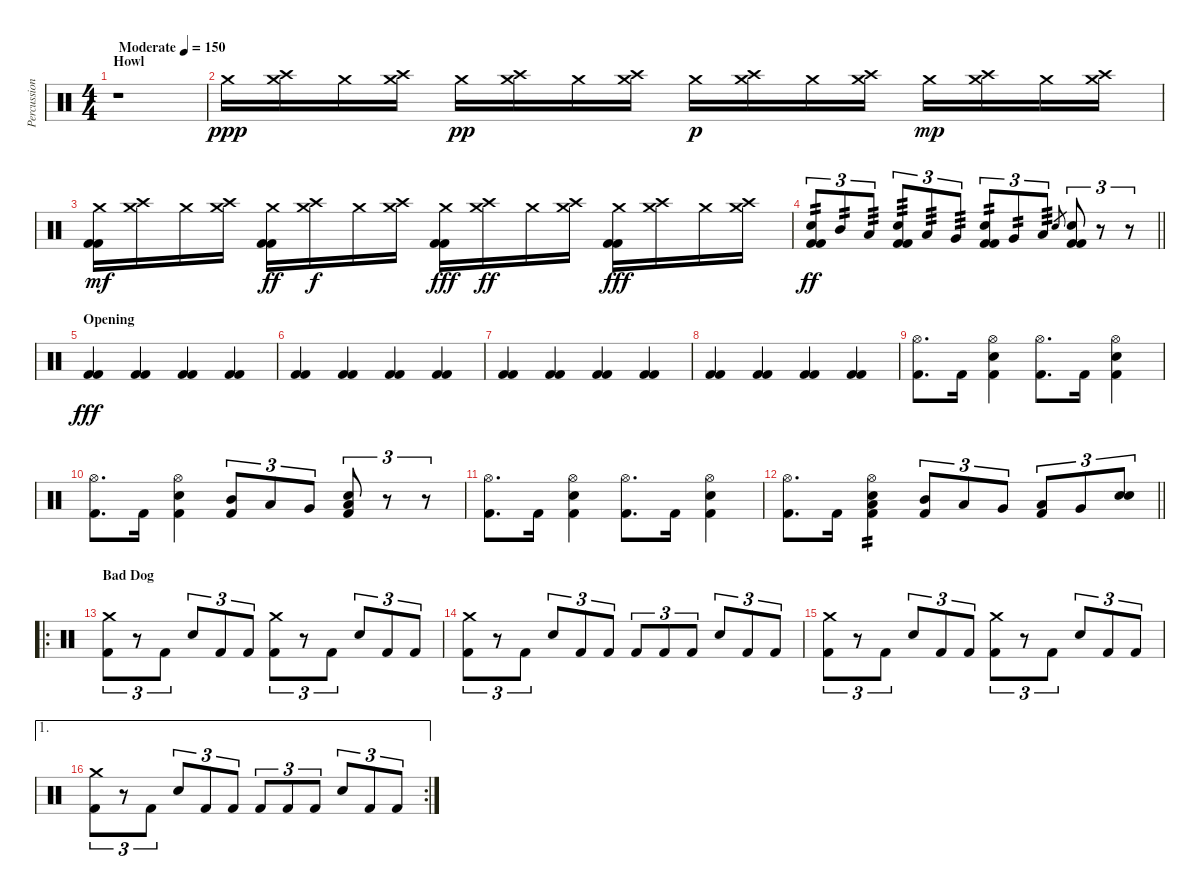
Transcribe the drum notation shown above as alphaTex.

\track ("Percussion" "Percussion") {instrument percussion}
\staff {score}
\articulation defaults
\ts (4 4)
\section ("" "Howl")
\tempo (150 "Moderate")
\clef neutral
\ks c
r.1{dy ppp} |
"Crash medium (hit)".16 ("Crash medium (hit)" "Crash high (hit)").16 "Crash medium (hit)".16 ("Crash medium (hit)" "Crash high (hit)").16 "Crash medium (hit)".16{dy pp} ("Crash medium (hit)" "Crash high (hit)").16 "Crash medium (hit)".16 ("Crash medium (hit)" "Crash high (hit)").16 "Crash medium (hit)".16{dy p} ("Crash medium (hit)" "Crash high (hit)").16 "Crash medium (hit)".16 ("Crash medium (hit)" "Crash high (hit)").16 "Crash medium (hit)".16{dy mp} ("Crash medium (hit)" "Crash high (hit)").16 "Crash medium (hit)".16 ("Crash medium (hit)" "Crash high (hit)").16 |
("Crash medium (hit)" "Kick (hit) 2" "Kick (hit) 2").16{dy mf} ("Crash medium (hit)" "Crash high (hit)").16 "Crash medium (hit)".16 ("Crash medium (hit)" "Crash high (hit)").16 ("Crash medium (hit)" "Kick (hit) 2" "Kick (hit) 2").16{dy ff} ("Crash medium (hit)" "Crash high (hit)").16{dy f} "Crash medium (hit)".16 ("Crash medium (hit)" "Crash high (hit)").16 ("Crash medium (hit)" "Kick (hit) 2" "Kick (hit) 2").16{dy fff} ("Crash medium (hit)" "Crash high (hit)").16{dy ff} "Crash medium (hit)".16 ("Crash medium (hit)" "Crash high (hit)").16 ("Crash medium (hit)" "Kick (hit) 2" "Kick (hit) 2").16{dy fff} ("Crash medium (hit)" "Crash high (hit)").16 "Crash medium (hit)".16 ("Crash medium (hit)" "Crash high (hit)").16 |
\barLineRight lightlight
("Snare (hit) 2" "Kick (hit) 2" "Kick (hit) 2").8{tu (3 2) tp 2 dy ff} "Mid Tom (hit)".8{tu (3 2) tp 2} "Low Tom (hit)".8{tu (3 2) tp 3} ("Snare (hit) 2" "Kick (hit) 2" "Kick (hit) 2").8{tu (3 2) tp 3} "Low Tom (hit)".8{tu (3 2) tp 3} "Very Low Tom (hit)".8{tu (3 2) tp 3} ("Snare (hit) 2" "Kick (hit) 2" "Kick (hit) 2").8{tu (3 2) tp 2} "Very Low Tom (hit)".8{tu (3 2) tp 2} "Low Floor Tom (hit)".8{tu (3 2) tp 3} "Electric Snare (hit)".8{gr} ("Snare (hit) 2" "Kick (hit) 2" "Kick (hit) 2").8{tu (3 2)} r.8{tu (3 2)} r.8{tu (3 2)} |
\section ("" "Opening")
("Kick (hit) 2" "Kick (hit) 2").4{dy fff} ("Kick (hit) 2" "Kick (hit) 2").4 ("Kick (hit) 2" "Kick (hit) 2").4 ("Kick (hit) 2" "Kick (hit) 2").4 |
("Kick (hit) 2" "Kick (hit) 2").4 ("Kick (hit) 2" "Kick (hit) 2").4 ("Kick (hit) 2" "Kick (hit) 2").4 ("Kick (hit) 2" "Kick (hit) 2").4 |
("Kick (hit) 2" "Kick (hit) 2").4 ("Kick (hit) 2" "Kick (hit) 2").4 ("Kick (hit) 2" "Kick (hit) 2").4 ("Kick (hit) 2" "Kick (hit) 2").4 |
("Kick (hit) 2" "Kick (hit) 2").4 ("Kick (hit) 2" "Kick (hit) 2").4 ("Kick (hit) 2" "Kick (hit) 2").4 ("Kick (hit) 2" "Kick (hit) 2").4 |
("Hi-Hat (open)" "Kick (hit) 2").8{d} "Kick (hit) 2".16 ("Hi-Hat (open)" "Snare (hit) 2" "Kick (hit) 2").4 ("Hi-Hat (open)" "Kick (hit) 2").8{d} "Kick (hit) 2".16 ("Hi-Hat (open)" "Snare (hit) 2" "Kick (hit) 2").4 |
("Hi-Hat (open)" "Kick (hit) 2").8{d} "Kick (hit) 2".16 ("Hi-Hat (open)" "Snare (hit) 2" "Kick (hit) 2").4 ("Mid Tom (hit)" "Kick (hit) 2").8{tu (3 2)} "Low Tom (hit)".8{tu (3 2)} "Very Low Tom (hit)".8{tu (3 2)} ("Snare (hit) 2" "Low Floor Tom (hit)" "Kick (hit) 2").8{tu (3 2)} r.8{tu (3 2)} r.8{tu (3 2)} |
("Hi-Hat (open)" "Kick (hit) 2").8{d} "Kick (hit) 2".16 ("Hi-Hat (open)" "Snare (hit) 2" "Kick (hit) 2").4 ("Hi-Hat (open)" "Kick (hit) 2").8{d} "Kick (hit) 2".16 ("Hi-Hat (open)" "Snare (hit) 2" "Kick (hit) 2").4 |
\barLineRight lightlight
("Hi-Hat (open)" "Kick (hit) 2").8{d} "Kick (hit) 2".16 ("Hi-Hat (open)" "Snare (hit) 2" "Low Tom (hit)" "Kick (hit) 2").4{tp 2} ("Mid Tom (hit)" "Kick (hit) 2").8{tu (3 2)} "Low Tom (hit)".8{tu (3 2)} "Very Low Tom (hit)".8{tu (3 2)} ("Low Tom (hit)" "Kick (hit) 2").8{tu (3 2)} "Very Low Tom (hit)".8{tu (3 2)} ("Snare (hit) 2" "Electric Snare (hit)").8{tu (3 2)} |
\ro
\section ("" "Bad Dog")
("Crash medium (hit)" "Kick (hit) 2").8{tu (3 2)} r.8{tu (3 2)} "Kick (hit) 2".8{tu (3 2)} "Snare (hit) 2".8{tu (3 2)} "Kick (hit) 2".8{tu (3 2)} "Kick (hit) 2".8{tu (3 2)} ("Crash medium (hit)" "Kick (hit) 2").8{tu (3 2)} r.8{tu (3 2)} "Kick (hit) 2".8{tu (3 2)} "Snare (hit) 2".8{tu (3 2)} "Kick (hit) 2".8{tu (3 2)} "Kick (hit) 2".8{tu (3 2)} |
("Crash medium (hit)" "Kick (hit) 2").8{tu (3 2)} r.8{tu (3 2)} "Kick (hit) 2".8{tu (3 2)} "Snare (hit) 2".8{tu (3 2)} "Kick (hit) 2".8{tu (3 2)} "Kick (hit) 2".8{tu (3 2)} "Kick (hit) 2".8{tu (3 2)} "Kick (hit) 2".8{tu (3 2)} "Kick (hit) 2".8{tu (3 2)} "Snare (hit) 2".8{tu (3 2)} "Kick (hit) 2".8{tu (3 2)} "Kick (hit) 2".8{tu (3 2)} |
("Crash medium (hit)" "Kick (hit) 2").8{tu (3 2)} r.8{tu (3 2)} "Kick (hit) 2".8{tu (3 2)} "Snare (hit) 2".8{tu (3 2)} "Kick (hit) 2".8{tu (3 2)} "Kick (hit) 2".8{tu (3 2)} ("Crash medium (hit)" "Kick (hit) 2").8{tu (3 2)} r.8{tu (3 2)} "Kick (hit) 2".8{tu (3 2)} "Snare (hit) 2".8{tu (3 2)} "Kick (hit) 2".8{tu (3 2)} "Kick (hit) 2".8{tu (3 2)} |
\ae 1
\rc 2
("Crash medium (hit)" "Kick (hit) 2").8{tu (3 2)} r.8{tu (3 2)} "Kick (hit) 2".8{tu (3 2)} "Snare (hit) 2".8{tu (3 2)} "Kick (hit) 2".8{tu (3 2)} "Kick (hit) 2".8{tu (3 2)} "Kick (hit) 2".8{tu (3 2)} "Kick (hit) 2".8{tu (3 2)} "Kick (hit) 2".8{tu (3 2)} "Snare (hit) 2".8{tu (3 2)} "Kick (hit) 2".8{tu (3 2)} "Kick (hit) 2".8{tu (3 2)}
